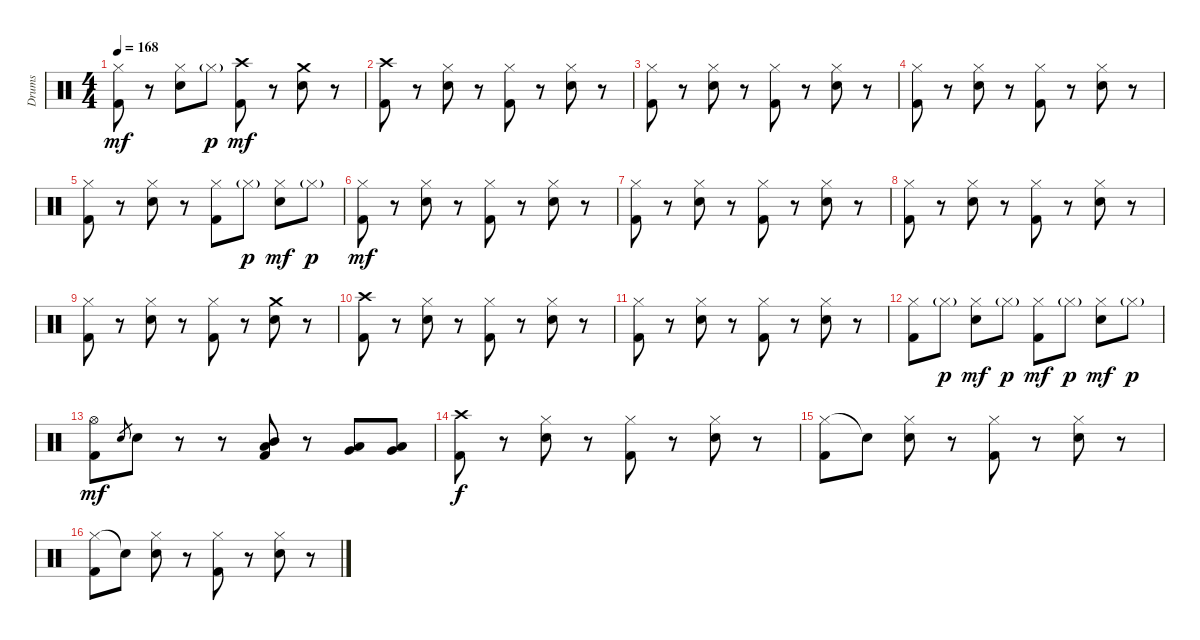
\track ("Drums" "Drums") {instrument percussion}
\staff {score}
\articulation defaults
\ts (4 4)
\tempo 168
\clef neutral
\ks c
("Hi-Hat (closed)" "Kick (hit) 2").8{dy mf} r.8 ("Hi-Hat (closed)" "Electric Snare (hit)").8 "Hi-Hat (closed)"{g}.8{dy p} ("Crash high (hit)" "Kick (hit) 2").8{dy mf} r.8 ("Crash medium (hit)" "Electric Snare (hit)").8 r.8 |
("Crash high (hit)" "Kick (hit) 2").8 r.8 ("Hi-Hat (closed)" "Electric Snare (hit)").8 r.8 ("Hi-Hat (closed)" "Kick (hit) 2").8 r.8 ("Hi-Hat (closed)" "Electric Snare (hit)").8 r.8 |
("Hi-Hat (closed)" "Kick (hit) 2").8 r.8 ("Hi-Hat (closed)" "Electric Snare (hit)").8 r.8 ("Hi-Hat (closed)" "Kick (hit) 2").8 r.8 ("Hi-Hat (closed)" "Electric Snare (hit)").8 r.8 |
("Hi-Hat (closed)" "Kick (hit) 2").8 r.8 ("Hi-Hat (closed)" "Electric Snare (hit)").8 r.8 ("Hi-Hat (closed)" "Kick (hit) 2").8 r.8 ("Hi-Hat (closed)" "Electric Snare (hit)").8 r.8 |
("Hi-Hat (closed)" "Kick (hit) 2").8 r.8 ("Hi-Hat (closed)" "Electric Snare (hit)").8 r.8 ("Hi-Hat (closed)" "Kick (hit) 2").8 "Hi-Hat (closed)"{g}.8{dy p} ("Hi-Hat (closed)" "Electric Snare (hit)").8{dy mf} "Hi-Hat (closed)"{g}.8{dy p} |
("Hi-Hat (closed)" "Kick (hit) 2").8{dy mf} r.8 ("Hi-Hat (closed)" "Electric Snare (hit)").8 r.8 ("Hi-Hat (closed)" "Kick (hit) 2").8 r.8 ("Hi-Hat (closed)" "Electric Snare (hit)").8 r.8 |
("Hi-Hat (closed)" "Kick (hit) 2").8 r.8 ("Hi-Hat (closed)" "Electric Snare (hit)").8 r.8 ("Hi-Hat (closed)" "Kick (hit) 2").8 r.8 ("Hi-Hat (closed)" "Electric Snare (hit)").8 r.8 |
("Hi-Hat (closed)" "Kick (hit) 2").8 r.8 ("Hi-Hat (closed)" "Electric Snare (hit)").8 r.8 ("Hi-Hat (closed)" "Kick (hit) 2").8 r.8 ("Hi-Hat (closed)" "Electric Snare (hit)").8 r.8 |
("Hi-Hat (closed)" "Kick (hit) 2").8 r.8 ("Hi-Hat (closed)" "Electric Snare (hit)").8 r.8 ("Hi-Hat (closed)" "Kick (hit) 2").8 r.8 ("Crash medium (hit)" "Electric Snare (hit)").8 r.8 |
("Crash high (hit)" "Kick (hit) 2").8 r.8 ("Hi-Hat (closed)" "Electric Snare (hit)").8 r.8 ("Hi-Hat (closed)" "Kick (hit) 2").8 r.8 ("Hi-Hat (closed)" "Electric Snare (hit)").8 r.8 |
("Hi-Hat (closed)" "Kick (hit) 2").8 r.8 ("Hi-Hat (closed)" "Electric Snare (hit)").8 r.8 ("Hi-Hat (closed)" "Kick (hit) 2").8 r.8 ("Hi-Hat (closed)" "Electric Snare (hit)").8 r.8 |
("Hi-Hat (closed)" "Kick (hit) 2").8 "Hi-Hat (closed)"{g}.8{dy p} ("Hi-Hat (closed)" "Electric Snare (hit)").8{dy mf} "Hi-Hat (closed)"{g}.8{dy p} ("Hi-Hat (closed)" "Kick (hit) 2").8{dy mf} "Hi-Hat (closed)"{g}.8{dy p} ("Hi-Hat (closed)" "Electric Snare (hit)").8{dy mf} "Hi-Hat (closed)"{g}.8{dy p} |
("Hi-Hat (open)" "Kick (hit) 2").8{dy mf} "Electric Snare (hit)".8{gr} "Electric Snare (hit)".8 r.8 r.8 ("Mid Tom (hit)" "Low Tom (hit)" "Kick (hit) 2").8 r.8 ("Very Low Tom (hit)" "Low Tom (hit)").8 ("Very Low Tom (hit)" "Low Tom (hit)").8 |
("Crash high (hit)" "Kick (hit) 2").8{dy f} r.8 ("Hi-Hat (closed)" "Electric Snare (hit)").8 r.8 ("Hi-Hat (closed)" "Kick (hit) 2").8 r.8 ("Hi-Hat (closed)" "Electric Snare (hit)").8 r.8 |
("Hi-Hat (closed)" "Kick (hit) 2").8 "Snare (hit)"{t}.8 ("Hi-Hat (closed)" "Electric Snare (hit)").8 r.8 ("Hi-Hat (closed)" "Kick (hit) 2").8 r.8 ("Hi-Hat (closed)" "Electric Snare (hit)").8 r.8 |
("Hi-Hat (closed)" "Kick (hit) 2").8 "Snare (hit)"{t}.8 ("Hi-Hat (closed)" "Electric Snare (hit)").8 r.8 ("Hi-Hat (closed)" "Kick (hit) 2").8 r.8 ("Hi-Hat (closed)" "Electric Snare (hit)").8 r.8
